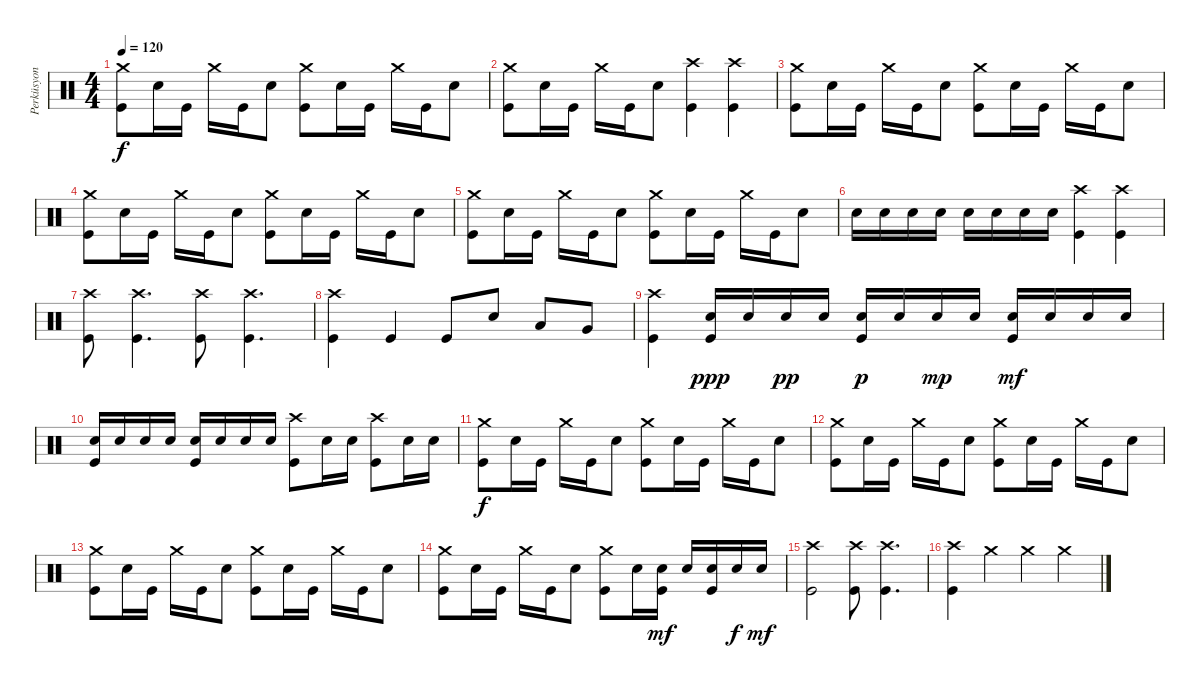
\track ("Perküsyon" "Perküsyon") {instrument percussion}
\staff {score}
\articulation defaults
\ts (4 4)
\tempo 120
\clef neutral
\ks c
("Kick (hit)" "Crash medium (hit)").8{dy f} "Snare (hit) 2".16 "Kick (hit)".16 "Crash medium (hit)".16 "Kick (hit)".16 "Snare (hit) 2".8 ("Kick (hit)" "Crash medium (hit)").8 "Snare (hit) 2".16 "Kick (hit)".16 "Crash medium (hit)".16 "Kick (hit)".16 "Snare (hit) 2".8 |
("Kick (hit)" "Crash medium (hit)").8 "Snare (hit) 2".16 "Kick (hit)".16 "Crash medium (hit)".16 "Kick (hit)".16 "Snare (hit) 2".8 ("Kick (hit)" "Crash high (hit)").4 ("Kick (hit)" "Crash high (hit)").4 |
("Kick (hit)" "Crash medium (hit)").8 "Snare (hit) 2".16 "Kick (hit)".16 "Crash medium (hit)".16 "Kick (hit)".16 "Snare (hit) 2".8 ("Kick (hit)" "Crash medium (hit)").8 "Snare (hit) 2".16 "Kick (hit)".16 "Crash medium (hit)".16 "Kick (hit)".16 "Snare (hit) 2".8 |
("Kick (hit)" "Crash medium (hit)").8 "Snare (hit) 2".16 "Kick (hit)".16 "Crash medium (hit)".16 "Kick (hit)".16 "Snare (hit) 2".8 ("Kick (hit)" "Crash medium (hit)").8 "Snare (hit) 2".16 "Kick (hit)".16 "Crash medium (hit)".16 "Kick (hit)".16 "Snare (hit) 2".8 |
("Kick (hit)" "Crash medium (hit)").8 "Snare (hit) 2".16 "Kick (hit)".16 "Crash medium (hit)".16 "Kick (hit)".16 "Snare (hit) 2".8 ("Kick (hit)" "Crash medium (hit)").8 "Snare (hit) 2".16 "Kick (hit)".16 "Crash medium (hit)".16 "Kick (hit)".16 "Snare (hit) 2".8 |
"Snare (hit) 2".16 "Snare (hit) 2".16 "Snare (hit) 2".16 "Snare (hit) 2".16 "Snare (hit) 2".16 "Snare (hit) 2".16 "Snare (hit) 2".16 "Snare (hit) 2".16 ("Kick (hit)" "Crash high (hit)").4 ("Kick (hit)" "Crash high (hit)").4 |
("Kick (hit)" "Crash high (hit)").8 ("Kick (hit)" "Crash high (hit)").4{d} ("Kick (hit)" "Crash high (hit)").8 ("Kick (hit)" "Crash high (hit)").4{d} |
("Kick (hit)" "Crash high (hit)").4 "Kick (hit)".4 "Kick (hit)".8 "Snare (hit) 2".8 "Low Tom (hit)".8 "Very Low Tom (hit)".8 |
("Kick (hit)" "Crash high (hit)").4 ("Kick (hit)" "Snare (hit) 2").16{dy ppp} "Snare (hit) 2".16 "Snare (hit) 2".16{dy pp} "Snare (hit) 2".16 ("Kick (hit)" "Snare (hit) 2").16{dy p} "Snare (hit) 2".16 "Snare (hit) 2".16{dy mp} "Snare (hit) 2".16 ("Kick (hit)" "Snare (hit) 2").16{dy mf} "Snare (hit) 2".16 "Snare (hit) 2".16 "Snare (hit) 2".16 |
("Kick (hit)" "Snare (hit) 2").16 "Snare (hit) 2".16 "Snare (hit) 2".16 "Snare (hit) 2".16 ("Kick (hit)" "Snare (hit) 2").16 "Snare (hit) 2".16 "Snare (hit) 2".16 "Snare (hit) 2".16 ("Kick (hit)" "Crash high (hit)").8 "Snare (hit) 2".16 "Snare (hit) 2".16 ("Kick (hit)" "Crash high (hit)").8 "Snare (hit) 2".16 "Snare (hit) 2".16 |
("Kick (hit)" "Crash medium (hit)").8{dy f} "Snare (hit) 2".16 "Kick (hit)".16 "Crash medium (hit)".16 "Kick (hit)".16 "Snare (hit) 2".8 ("Kick (hit)" "Crash medium (hit)").8 "Snare (hit) 2".16 "Kick (hit)".16 "Crash medium (hit)".16 "Kick (hit)".16 "Snare (hit) 2".8 |
("Kick (hit)" "Crash medium (hit)").8 "Snare (hit) 2".16 "Kick (hit)".16 "Crash medium (hit)".16 "Kick (hit)".16 "Snare (hit) 2".8 ("Kick (hit)" "Crash medium (hit)").8 "Snare (hit) 2".16 "Kick (hit)".16 "Crash medium (hit)".16 "Kick (hit)".16 "Snare (hit) 2".8 |
("Kick (hit)" "Crash medium (hit)").8 "Snare (hit) 2".16 "Kick (hit)".16 "Crash medium (hit)".16 "Kick (hit)".16 "Snare (hit) 2".8 ("Kick (hit)" "Crash medium (hit)").8 "Snare (hit) 2".16 "Kick (hit)".16 "Crash medium (hit)".16 "Kick (hit)".16 "Snare (hit) 2".8 |
("Kick (hit)" "Crash medium (hit)").8 "Snare (hit) 2".16 "Kick (hit)".16 "Crash medium (hit)".16 "Kick (hit)".16 "Snare (hit) 2".8 ("Kick (hit)" "Crash medium (hit)").8 "Snare (hit) 2".16 ("Kick (hit)" "Snare (hit) 2").16{dy mf} "Snare (hit) 2".16 ("Kick (hit)" "Snare (hit) 2").16 "Snare (hit) 2".16{dy f} "Snare (hit) 2".16{dy mf} |
("Kick (hit)" "Crash high (hit)").2 ("Kick (hit)" "Crash high (hit)").8 ("Kick (hit)" "Crash high (hit)").4{d} |
("Kick (hit)" "Crash high (hit)").4 "Crash medium (hit)".4 "Crash medium (hit)".4 "Crash medium (hit)".4
